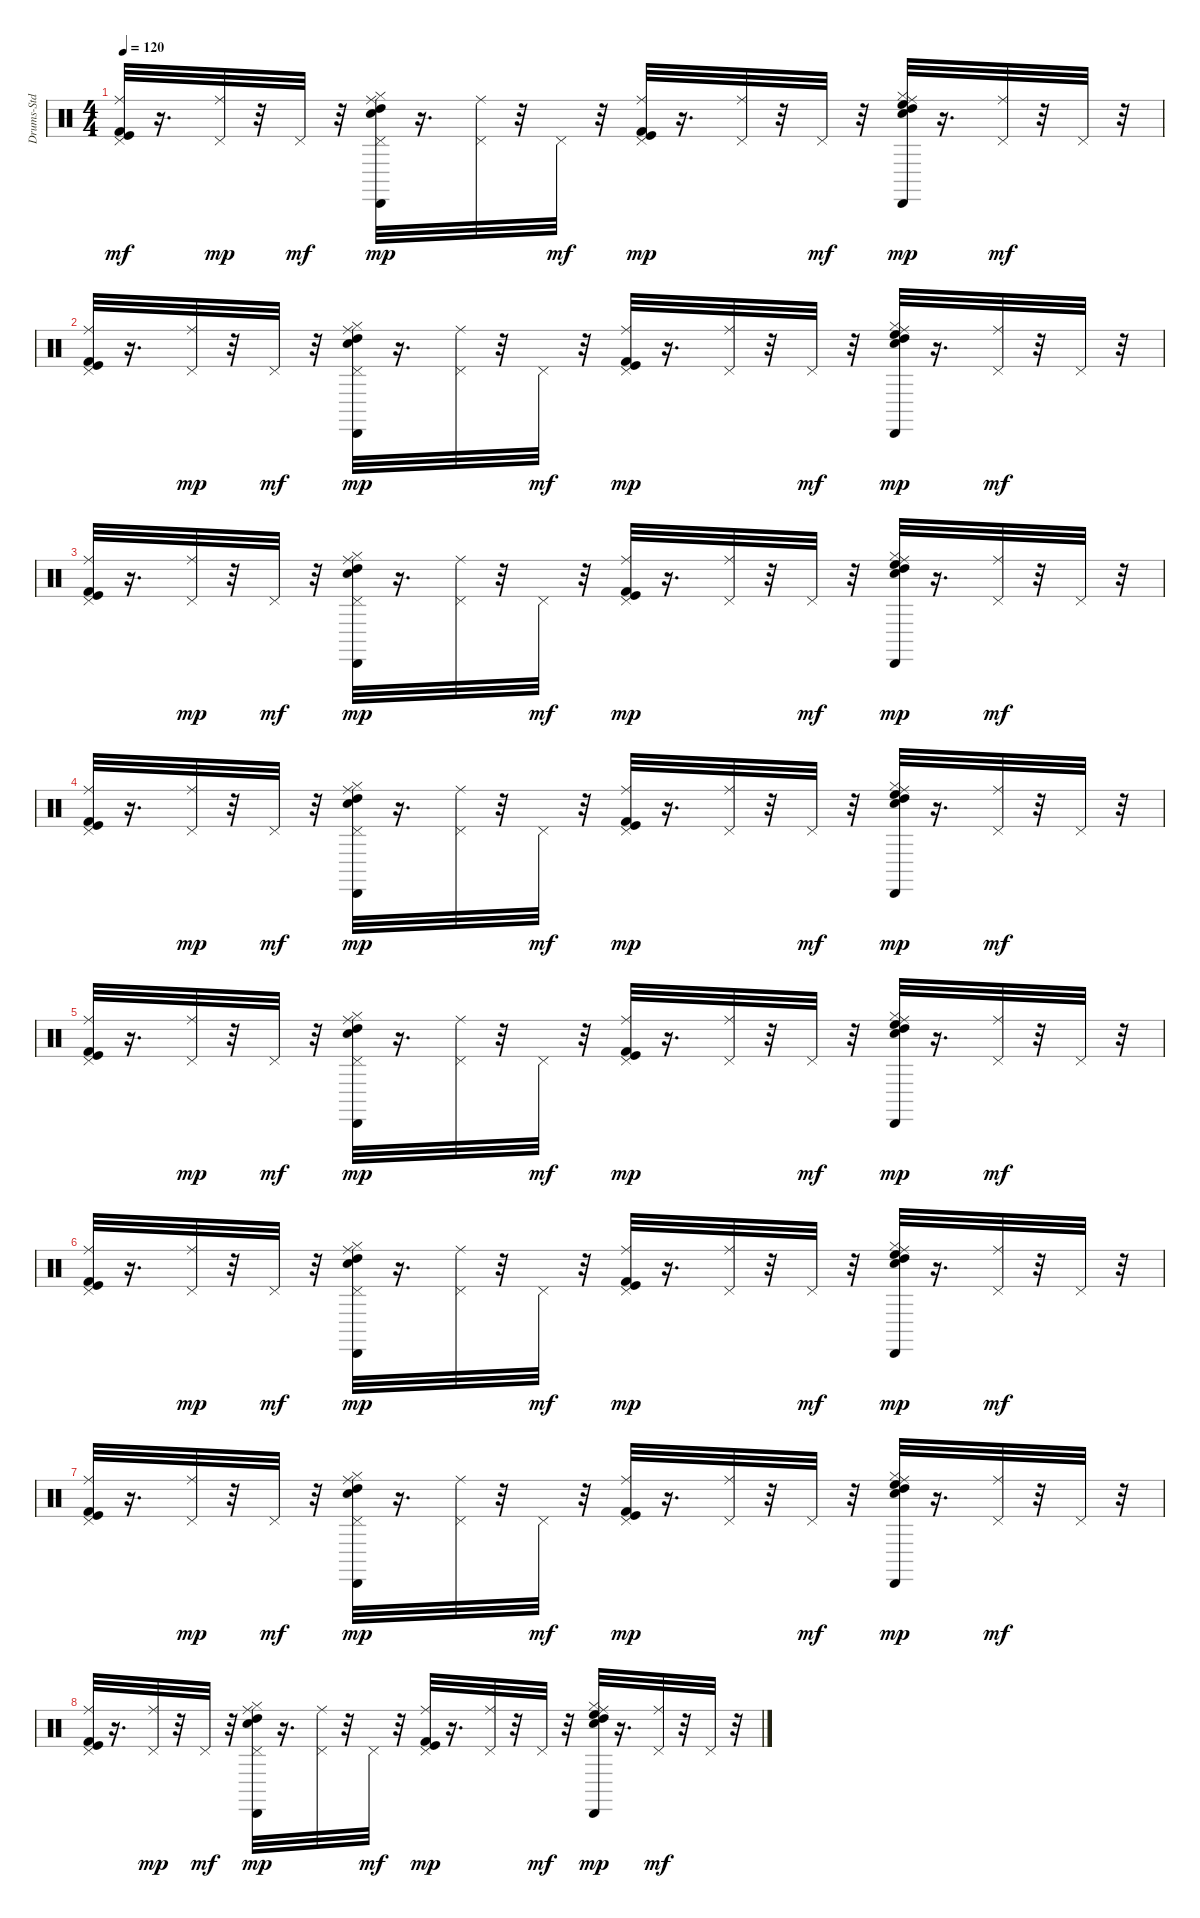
\track ("Drums-Std" "Drums-Std") {instrument percussion}
\staff {score}
\articulation defaults
\ts (4 4)
\tempo 120
\clef neutral
\ks c
("Ride (middle)" "Pedal Hi-Hat (hit)" "Kick (hit) 2" "Kick (hit)").32{dy mf} r.16{d} ("Ride (middle)" "Pedal Hi-Hat (hit)").32{dy mp} r.32 "Pedal Hi-Hat (hit)".32{dy mf} r.32 ("Snare (hit) 2" "High Tom (hit)" "Ride (middle)" "Cabasa (hit)" "Hi-Hat (closed)" "Pedal Hi-Hat (hit)").32{dy mp} r.16{d} ("Ride (middle)" "Pedal Hi-Hat (hit)").32 r.32 "Pedal Hi-Hat (hit)".32{dy mf} r.32 ("Ride (middle)" "Pedal Hi-Hat (hit)" "Kick (hit) 2" "Kick (hit)").32{dy mp} r.16{d} ("Ride (middle)" "Pedal Hi-Hat (hit)").32 r.32 "Pedal Hi-Hat (hit)".32{dy mf} r.32 ("Snare (hit) 2" "High Floor Tom (hit)" "High Tom (hit)" "Ride (middle)" "Cabasa (hit)" "Hi-Hat (closed)").32{dy mp} r.16{d} ("Ride (middle)" "Pedal Hi-Hat (hit)").32{dy mf} r.32 "Pedal Hi-Hat (hit)".32 r.32 |
("Ride (middle)" "Pedal Hi-Hat (hit)" "Kick (hit) 2" "Kick (hit)").32 r.16{d} ("Ride (middle)" "Pedal Hi-Hat (hit)").32{dy mp} r.32 "Pedal Hi-Hat (hit)".32{dy mf} r.32 ("Snare (hit) 2" "High Tom (hit)" "Ride (middle)" "Cabasa (hit)" "Hi-Hat (closed)" "Pedal Hi-Hat (hit)").32{dy mp} r.16{d} ("Ride (middle)" "Pedal Hi-Hat (hit)").32 r.32 "Pedal Hi-Hat (hit)".32{dy mf} r.32 ("Ride (middle)" "Pedal Hi-Hat (hit)" "Kick (hit) 2" "Kick (hit)").32{dy mp} r.16{d} ("Ride (middle)" "Pedal Hi-Hat (hit)").32 r.32 "Pedal Hi-Hat (hit)".32{dy mf} r.32 ("Snare (hit) 2" "High Floor Tom (hit)" "High Tom (hit)" "Ride (middle)" "Cabasa (hit)" "Hi-Hat (closed)").32{dy mp} r.16{d} ("Ride (middle)" "Pedal Hi-Hat (hit)").32{dy mf} r.32 "Pedal Hi-Hat (hit)".32 r.32 |
("Ride (middle)" "Pedal Hi-Hat (hit)" "Kick (hit) 2" "Kick (hit)").32 r.16{d} ("Ride (middle)" "Pedal Hi-Hat (hit)").32{dy mp} r.32 "Pedal Hi-Hat (hit)".32{dy mf} r.32 ("Snare (hit) 2" "High Tom (hit)" "Ride (middle)" "Cabasa (hit)" "Hi-Hat (closed)" "Pedal Hi-Hat (hit)").32{dy mp} r.16{d} ("Ride (middle)" "Pedal Hi-Hat (hit)").32 r.32 "Pedal Hi-Hat (hit)".32{dy mf} r.32 ("Ride (middle)" "Pedal Hi-Hat (hit)" "Kick (hit) 2" "Kick (hit)").32{dy mp} r.16{d} ("Ride (middle)" "Pedal Hi-Hat (hit)").32 r.32 "Pedal Hi-Hat (hit)".32{dy mf} r.32 ("Snare (hit) 2" "High Floor Tom (hit)" "High Tom (hit)" "Ride (middle)" "Cabasa (hit)" "Hi-Hat (closed)").32{dy mp} r.16{d} ("Ride (middle)" "Pedal Hi-Hat (hit)").32{dy mf} r.32 "Pedal Hi-Hat (hit)".32 r.32 |
("Ride (middle)" "Pedal Hi-Hat (hit)" "Kick (hit) 2" "Kick (hit)").32 r.16{d} ("Ride (middle)" "Pedal Hi-Hat (hit)").32{dy mp} r.32 "Pedal Hi-Hat (hit)".32{dy mf} r.32 ("Snare (hit) 2" "High Tom (hit)" "Ride (middle)" "Cabasa (hit)" "Hi-Hat (closed)" "Pedal Hi-Hat (hit)").32{dy mp} r.16{d} ("Ride (middle)" "Pedal Hi-Hat (hit)").32 r.32 "Pedal Hi-Hat (hit)".32{dy mf} r.32 ("Ride (middle)" "Pedal Hi-Hat (hit)" "Kick (hit) 2" "Kick (hit)").32{dy mp} r.16{d} ("Ride (middle)" "Pedal Hi-Hat (hit)").32 r.32 "Pedal Hi-Hat (hit)".32{dy mf} r.32 ("Snare (hit) 2" "High Floor Tom (hit)" "High Tom (hit)" "Ride (middle)" "Cabasa (hit)" "Hi-Hat (closed)").32{dy mp} r.16{d} ("Ride (middle)" "Pedal Hi-Hat (hit)").32{dy mf} r.32 "Pedal Hi-Hat (hit)".32 r.32 |
("Ride (middle)" "Pedal Hi-Hat (hit)" "Kick (hit) 2" "Kick (hit)").32 r.16{d} ("Ride (middle)" "Pedal Hi-Hat (hit)").32{dy mp} r.32 "Pedal Hi-Hat (hit)".32{dy mf} r.32 ("Snare (hit) 2" "High Tom (hit)" "Ride (middle)" "Cabasa (hit)" "Hi-Hat (closed)" "Pedal Hi-Hat (hit)").32{dy mp} r.16{d} ("Ride (middle)" "Pedal Hi-Hat (hit)").32 r.32 "Pedal Hi-Hat (hit)".32{dy mf} r.32 ("Ride (middle)" "Pedal Hi-Hat (hit)" "Kick (hit) 2" "Kick (hit)").32{dy mp} r.16{d} ("Ride (middle)" "Pedal Hi-Hat (hit)").32 r.32 "Pedal Hi-Hat (hit)".32{dy mf} r.32 ("Snare (hit) 2" "High Floor Tom (hit)" "High Tom (hit)" "Ride (middle)" "Cabasa (hit)" "Hi-Hat (closed)").32{dy mp} r.16{d} ("Ride (middle)" "Pedal Hi-Hat (hit)").32{dy mf} r.32 "Pedal Hi-Hat (hit)".32 r.32 |
("Ride (middle)" "Pedal Hi-Hat (hit)" "Kick (hit) 2" "Kick (hit)").32 r.16{d} ("Ride (middle)" "Pedal Hi-Hat (hit)").32{dy mp} r.32 "Pedal Hi-Hat (hit)".32{dy mf} r.32 ("Snare (hit) 2" "High Tom (hit)" "Ride (middle)" "Cabasa (hit)" "Hi-Hat (closed)" "Pedal Hi-Hat (hit)").32{dy mp} r.16{d} ("Ride (middle)" "Pedal Hi-Hat (hit)").32 r.32 "Pedal Hi-Hat (hit)".32{dy mf} r.32 ("Ride (middle)" "Pedal Hi-Hat (hit)" "Kick (hit) 2" "Kick (hit)").32{dy mp} r.16{d} ("Ride (middle)" "Pedal Hi-Hat (hit)").32 r.32 "Pedal Hi-Hat (hit)".32{dy mf} r.32 ("Snare (hit) 2" "High Floor Tom (hit)" "High Tom (hit)" "Ride (middle)" "Cabasa (hit)" "Hi-Hat (closed)").32{dy mp} r.16{d} ("Ride (middle)" "Pedal Hi-Hat (hit)").32{dy mf} r.32 "Pedal Hi-Hat (hit)".32 r.32 |
("Ride (middle)" "Pedal Hi-Hat (hit)" "Kick (hit) 2" "Kick (hit)").32 r.16{d} ("Ride (middle)" "Pedal Hi-Hat (hit)").32{dy mp} r.32 "Pedal Hi-Hat (hit)".32{dy mf} r.32 ("Snare (hit) 2" "High Tom (hit)" "Ride (middle)" "Cabasa (hit)" "Hi-Hat (closed)" "Pedal Hi-Hat (hit)").32{dy mp} r.16{d} ("Ride (middle)" "Pedal Hi-Hat (hit)").32 r.32 "Pedal Hi-Hat (hit)".32{dy mf} r.32 ("Ride (middle)" "Pedal Hi-Hat (hit)" "Kick (hit) 2" "Kick (hit)").32{dy mp} r.16{d} ("Ride (middle)" "Pedal Hi-Hat (hit)").32 r.32 "Pedal Hi-Hat (hit)".32{dy mf} r.32 ("Snare (hit) 2" "High Floor Tom (hit)" "High Tom (hit)" "Ride (middle)" "Cabasa (hit)" "Hi-Hat (closed)").32{dy mp} r.16{d} ("Ride (middle)" "Pedal Hi-Hat (hit)").32{dy mf} r.32 "Pedal Hi-Hat (hit)".32 r.32 |
("Ride (middle)" "Pedal Hi-Hat (hit)" "Kick (hit) 2" "Kick (hit)").32 r.16{d} ("Ride (middle)" "Pedal Hi-Hat (hit)").32{dy mp} r.32 "Pedal Hi-Hat (hit)".32{dy mf} r.32 ("Snare (hit) 2" "High Tom (hit)" "Ride (middle)" "Cabasa (hit)" "Hi-Hat (closed)" "Pedal Hi-Hat (hit)").32{dy mp} r.16{d} ("Ride (middle)" "Pedal Hi-Hat (hit)").32 r.32 "Pedal Hi-Hat (hit)".32{dy mf} r.32 ("Ride (middle)" "Pedal Hi-Hat (hit)" "Kick (hit) 2" "Kick (hit)").32{dy mp} r.16{d} ("Ride (middle)" "Pedal Hi-Hat (hit)").32 r.32 "Pedal Hi-Hat (hit)".32{dy mf} r.32 ("Snare (hit) 2" "High Floor Tom (hit)" "High Tom (hit)" "Ride (middle)" "Cabasa (hit)" "Hi-Hat (closed)").32{dy mp} r.16{d} ("Ride (middle)" "Pedal Hi-Hat (hit)").32{dy mf} r.32 "Pedal Hi-Hat (hit)".32 r.32
